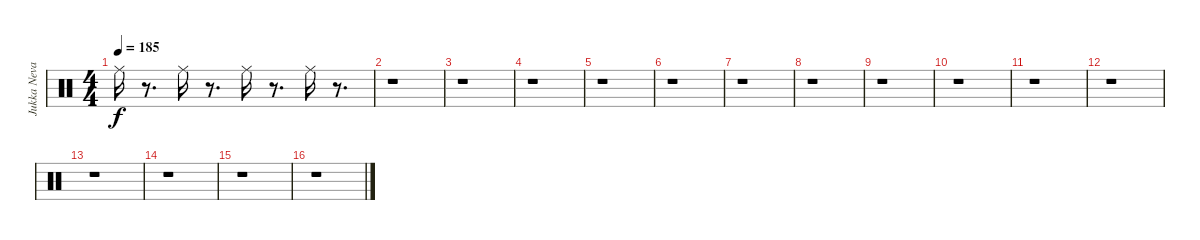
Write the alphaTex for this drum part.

\track ("Jukka Nevalinen" "Jukka Neva") {instrument percussion}
\staff {score}
\articulation defaults
\ts (4 4)
\tempo 185
\clef neutral
\ks c "Ride (middle)".16{dy f}
r.8{d} "Ride (middle)".16 r.8{d} "Ride (middle)".16 r.8{d} "Ride (middle)".16 r.8{d} |
r.1 |
r.1 |
r.1 |
r.1 |
r.1 |
r.1 |
r.1 |
r.1 |
r.1 |
r.1 |
r.1 |
r.1 |
r.1 |
r.1 |
r.1
